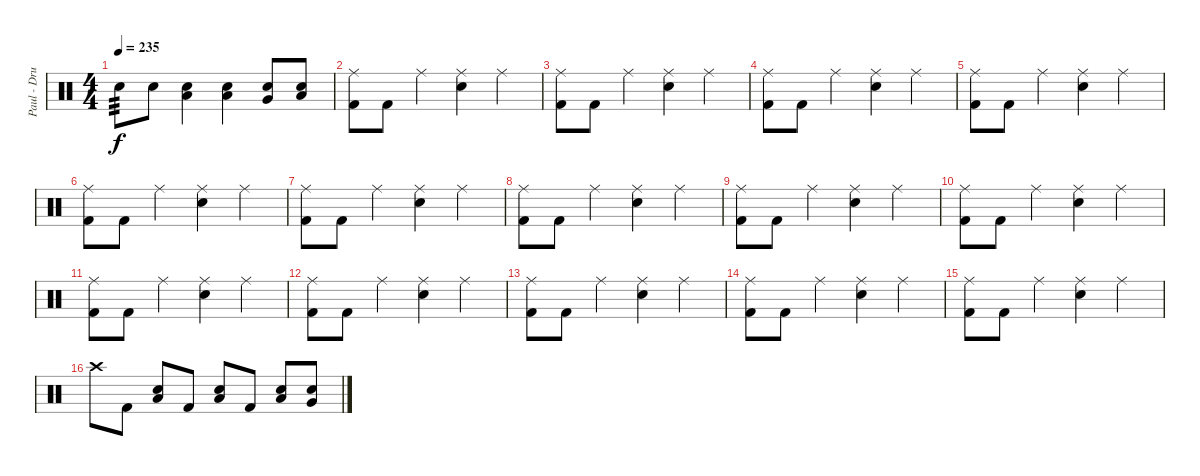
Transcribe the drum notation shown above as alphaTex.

\track ("Paul - Drums" "Paul - Dru") {instrument percussion}
\staff {score}
\articulation defaults
\ts (4 4)
\tempo 235
\clef neutral
\ks c "Electric Snare (hit)".8{tp 3 dy f} "Electric Snare (hit)".8
("Low Tom (hit)" "Electric Snare (hit)").4 ("Low Tom (hit)" "Electric Snare (hit)").4 ("Very Low Tom (hit)" "Electric Snare (hit)").8 ("Low Tom (hit)" "Electric Snare (hit)").8 |
("Ride (middle)" "Kick (hit) 2").8 "Kick (hit) 2".8 "Ride (middle)".4 ("Ride (middle)" "Electric Snare (hit)").4 "Ride (middle)".4 |
("Ride (middle)" "Kick (hit) 2").8 "Kick (hit) 2".8 "Ride (middle)".4 ("Ride (middle)" "Electric Snare (hit)").4 "Ride (middle)".4 |
("Ride (middle)" "Kick (hit) 2").8 "Kick (hit) 2".8 "Ride (middle)".4 ("Ride (middle)" "Electric Snare (hit)").4 "Ride (middle)".4 |
("Ride (middle)" "Kick (hit) 2").8 "Kick (hit) 2".8 "Ride (middle)".4 ("Ride (middle)" "Electric Snare (hit)").4 "Ride (middle)".4 |
("Ride (middle)" "Kick (hit) 2").8 "Kick (hit) 2".8 "Ride (middle)".4 ("Ride (middle)" "Electric Snare (hit)").4 "Ride (middle)".4 |
("Ride (middle)" "Kick (hit) 2").8 "Kick (hit) 2".8 "Ride (middle)".4 ("Ride (middle)" "Electric Snare (hit)").4 "Ride (middle)".4 |
("Ride (middle)" "Kick (hit) 2").8 "Kick (hit) 2".8 "Ride (middle)".4 ("Ride (middle)" "Electric Snare (hit)").4 "Ride (middle)".4 |
("Ride (middle)" "Kick (hit) 2").8 "Kick (hit) 2".8 "Ride (middle)".4 ("Ride (middle)" "Electric Snare (hit)").4 "Ride (middle)".4 |
("Ride (middle)" "Kick (hit) 2").8 "Kick (hit) 2".8 "Ride (middle)".4 ("Ride (middle)" "Electric Snare (hit)").4 "Ride (middle)".4 |
("Ride (middle)" "Kick (hit) 2").8 "Kick (hit) 2".8 "Ride (middle)".4 ("Ride (middle)" "Electric Snare (hit)").4 "Ride (middle)".4 |
("Ride (middle)" "Kick (hit) 2").8 "Kick (hit) 2".8 "Ride (middle)".4 ("Ride (middle)" "Electric Snare (hit)").4 "Ride (middle)".4 |
("Ride (middle)" "Kick (hit) 2").8 "Kick (hit) 2".8 "Ride (middle)".4 ("Ride (middle)" "Electric Snare (hit)").4 "Ride (middle)".4 |
("Ride (middle)" "Kick (hit) 2").8 "Kick (hit) 2".8 "Ride (middle)".4 ("Ride (middle)" "Electric Snare (hit)").4 "Ride (middle)".4 |
("Ride (middle)" "Kick (hit) 2").8 "Kick (hit) 2".8 "Ride (middle)".4 ("Ride (middle)" "Electric Snare (hit)").4 "Ride (middle)".4 |
"Crash high (hit)".8 "Kick (hit) 2".8 ("Low Tom (hit)" "Electric Snare (hit)").8 "Kick (hit) 2".8 ("Low Tom (hit)" "Electric Snare (hit)").8 "Kick (hit) 2".8 ("Low Tom (hit)" "Electric Snare (hit)").8 ("Very Low Tom (hit)" "Electric Snare (hit)").8
